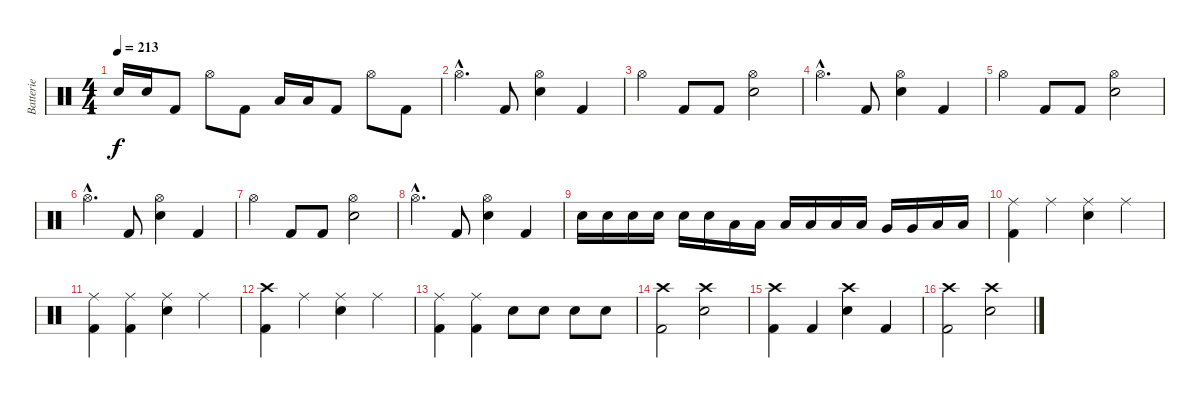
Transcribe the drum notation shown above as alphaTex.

\track ("Batterie" "Batterie") {instrument percussion}
\staff {score}
\articulation defaults
\ts (4 4)
\tempo 213
\clef neutral
\ks c "Electric Snare (hit)".16{dy f} "Electric Snare (hit)".16 "Kick (hit) 2".8 "Hi-Hat (open)".8 "Kick (hit) 2".8 "Low Tom (hit)".16 "Low Tom (hit)".16 "Kick (hit) 2".8 "Hi-Hat (open)".8 "Kick (hit) 2".8
|
"Hi-Hat (open)"{hac}.4{d} "Kick (hit) 2".8 ("Hi-Hat (open)" "Electric Snare (hit)").4 "Kick (hit) 2".4 |
"Hi-Hat (open)".4 "Kick (hit) 2".8 "Kick (hit) 2".8 ("Hi-Hat (open)" "Electric Snare (hit)").2 |
"Hi-Hat (open)"{hac}.4{d} "Kick (hit) 2".8 ("Hi-Hat (open)" "Electric Snare (hit)").4 "Kick (hit) 2".4 |
"Hi-Hat (open)".4 "Kick (hit) 2".8 "Kick (hit) 2".8 ("Hi-Hat (open)" "Electric Snare (hit)").2 |
"Hi-Hat (open)"{hac}.4{d} "Kick (hit) 2".8 ("Hi-Hat (open)" "Electric Snare (hit)").4 "Kick (hit) 2".4 |
"Hi-Hat (open)".4 "Kick (hit) 2".8 "Kick (hit) 2".8 ("Hi-Hat (open)" "Electric Snare (hit)").2 |
"Hi-Hat (open)"{hac}.4{d} "Kick (hit) 2".8 ("Hi-Hat (open)" "Electric Snare (hit)").4 "Kick (hit) 2".4 |
"Electric Snare (hit)".16 "Electric Snare (hit)".16 "Electric Snare (hit)".16 "Electric Snare (hit)".16 "Electric Snare (hit)".16 "Electric Snare (hit)".16 "Low Tom (hit)".16 "Low Tom (hit)".16 "Low Tom (hit)".16 "Low Tom (hit)".16 "Low Tom (hit)".16 "Low Tom (hit)".16 "Very Low Tom (hit)".16 "Very Low Tom (hit)".16 "Low Floor Tom (hit)".16 "Low Floor Tom (hit)".16 |
("Ride (middle)" "Kick (hit) 2").4 "Ride (middle)".4 ("Electric Snare (hit)" "Ride (middle)").4 "Ride (middle)".4 |
("Kick (hit) 2" "Ride (middle)").4 ("Ride (middle)" "Kick (hit) 2").4 ("Electric Snare (hit)" "Ride (middle)").4 "Ride (middle)".4 |
("Kick (hit) 2" "Crash high (hit)").4 "Ride (middle)".4 ("Electric Snare (hit)" "Ride (middle)").4 "Ride (middle)".4 |
("Ride (middle)" "Kick (hit) 2").4 ("Ride (middle)" "Kick (hit) 2").4 "Electric Snare (hit)".8 "Electric Snare (hit)".8 "Electric Snare (hit)".8 "Electric Snare (hit)".8 |
("Crash high (hit)" "Kick (hit) 2").2 ("Crash high (hit)" "Electric Snare (hit)").2 |
("Crash high (hit)" "Kick (hit) 2").4 "Kick (hit) 2".4 ("Crash high (hit)" "Electric Snare (hit)").4 "Kick (hit) 2".4 |
("Crash high (hit)" "Kick (hit) 2").2 ("Crash high (hit)" "Electric Snare (hit)").2
